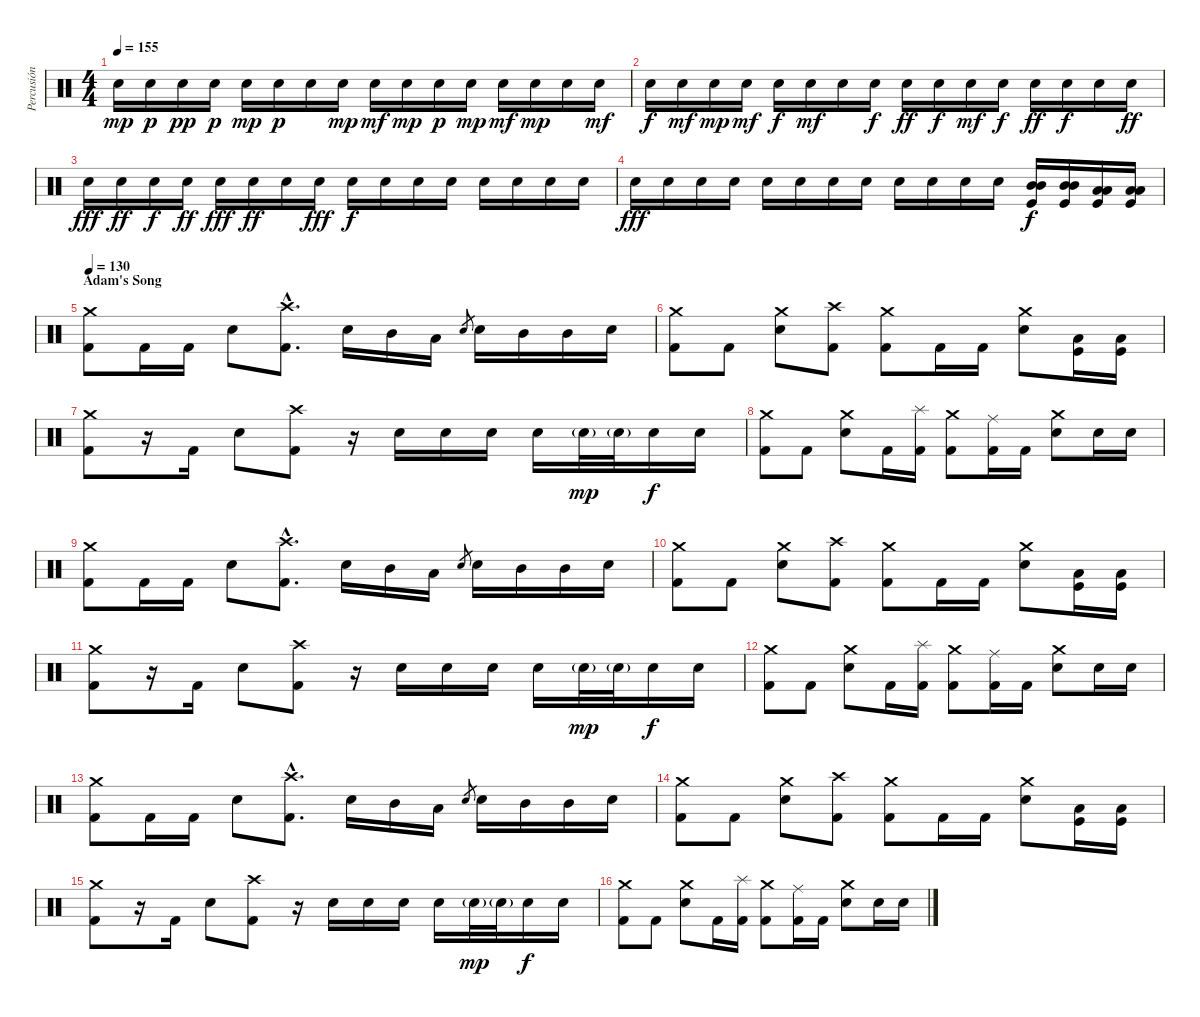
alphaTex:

\track ("Percusión" "Percusión") {instrument percussion}
\staff {score}
\articulation defaults
\ts (4 4)
\tempo 155
\clef neutral
\ks c "Electric Snare (hit)".16{dy mp} "Electric Snare (hit)".16{dy p} "Electric Snare (hit)".16{dy pp} "Electric Snare (hit)".16{dy p} "Electric Snare (hit)".16{dy mp} "Electric Snare (hit)".16{dy p} "Electric Snare (hit)".16 "Electric Snare (hit)".16{dy mp} "Electric Snare (hit)".16{dy mf} "Electric Snare (hit)".16{dy mp} "Electric Snare (hit)".16{dy p} "Electric Snare (hit)".16{dy mp} "Electric Snare (hit)".16{dy mf} "Electric Snare (hit)".16{dy mp} "Electric Snare (hit)".16 "Electric Snare (hit)".16{dy mf}
|
"Electric Snare (hit)".16{dy f} "Electric Snare (hit)".16{dy mf} "Electric Snare (hit)".16{dy mp} "Electric Snare (hit)".16{dy mf} "Electric Snare (hit)".16{dy f} "Electric Snare (hit)".16{dy mf} "Electric Snare (hit)".16 "Electric Snare (hit)".16{dy f} "Electric Snare (hit)".16{dy ff} "Electric Snare (hit)".16{dy f} "Electric Snare (hit)".16{dy mf} "Electric Snare (hit)".16{dy f} "Electric Snare (hit)".16{dy ff} "Electric Snare (hit)".16{dy f} "Electric Snare (hit)".16 "Electric Snare (hit)".16{dy ff} |
"Electric Snare (hit)".16{dy fff} "Electric Snare (hit)".16{dy ff} "Electric Snare (hit)".16{dy f} "Electric Snare (hit)".16{dy ff} "Electric Snare (hit)".16{dy fff} "Electric Snare (hit)".16{dy ff} "Electric Snare (hit)".16 "Electric Snare (hit)".16{dy fff} "Electric Snare (hit)".16{dy f} "Electric Snare (hit)".16 "Electric Snare (hit)".16 "Electric Snare (hit)".16 "Electric Snare (hit)".16 "Electric Snare (hit)".16 "Electric Snare (hit)".16 "Electric Snare (hit)".16 |
"Electric Snare (hit)".16{dy fff} "Electric Snare (hit)".16 "Electric Snare (hit)".16 "Electric Snare (hit)".16 "Electric Snare (hit)".16 "Electric Snare (hit)".16 "Electric Snare (hit)".16 "Electric Snare (hit)".16 "Electric Snare (hit)".16 "Electric Snare (hit)".16 "Electric Snare (hit)".16 "Electric Snare (hit)".16 ("Mid Tom (hit)" "Mid Tom (hit)" "Kick (hit)").16{dy f} ("Mid Tom (hit)" "Mid Tom (hit)" "Kick (hit)").16 ("Low Tom (hit)" "Low Tom (hit)" "Kick (hit)").16 ("Low Tom (hit)" "Low Tom (hit)" "Kick (hit)").16 |
\section ("" "Adam's Song")
\tempo 130
("Crash medium (hit)" "Kick (hit) 2").8 "Kick (hit) 2".16 "Kick (hit) 2".16 "Electric Snare (hit)".8 ("Crash high (hit)"{hac} "Kick (hit) 2"{hac}).8{d} "Electric Snare (hit)".16 "Mid Tom (hit)".16 "Low Tom (hit)".16 "Electric Snare (hit)".8{gr} "Electric Snare (hit)".16 "Mid Tom (hit)".16 "Mid Tom (hit)".16 "Electric Snare (hit)".16 |
("Crash medium (hit)" "Kick (hit) 2").8 "Kick (hit) 2".8 ("Crash medium (hit)" "Electric Snare (hit)").8 ("Crash high (hit)" "Kick (hit) 2").8 ("Crash medium (hit)" "Kick (hit) 2").8 "Kick (hit) 2".16 "Kick (hit) 2".16 ("Crash medium (hit)" "Electric Snare (hit)").8 ("Low Tom (hit)" "Kick (hit)").16 ("Low Tom (hit)" "Kick (hit)").16 |
("Crash medium (hit)" "Kick (hit) 2").8 r.16 "Kick (hit) 2".16 "Electric Snare (hit)".8 ("Crash high (hit)" "Kick (hit) 2").8 r.16 "Electric Snare (hit)".16 "Electric Snare (hit)".16 "Electric Snare (hit)".16 "Electric Snare (hit)".16 "Electric Snare (hit)"{g}.32{dy mp} "Electric Snare (hit)"{g}.32 "Electric Snare (hit)".16{dy f} "Electric Snare (hit)".16 |
("Crash medium (hit)" "Kick (hit) 2").8 "Kick (hit) 2".8 ("Crash medium (hit)" "Electric Snare (hit)").8 "Kick (hit) 2".16 ("Splash (hit)" "Kick (hit) 2").16 ("Crash medium (hit)" "Kick (hit) 2").8 ("Ride (middle)" "Kick (hit) 2").16 "Kick (hit) 2".16 ("Crash medium (hit)" "Electric Snare (hit)").8 "Electric Snare (hit)".16 "Electric Snare (hit)".16 |
("Crash medium (hit)" "Kick (hit) 2").8 "Kick (hit) 2".16 "Kick (hit) 2".16 "Electric Snare (hit)".8 ("Crash high (hit)"{hac} "Kick (hit) 2"{hac}).8{d} "Electric Snare (hit)".16 "Mid Tom (hit)".16 "Low Tom (hit)".16 "Electric Snare (hit)".8{gr} "Electric Snare (hit)".16 "Mid Tom (hit)".16 "Mid Tom (hit)".16 "Electric Snare (hit)".16 |
("Crash medium (hit)" "Kick (hit) 2").8 "Kick (hit) 2".8 ("Crash medium (hit)" "Electric Snare (hit)").8 ("Crash high (hit)" "Kick (hit) 2").8 ("Crash medium (hit)" "Kick (hit) 2").8 "Kick (hit) 2".16 "Kick (hit) 2".16 ("Crash medium (hit)" "Electric Snare (hit)").8 ("Low Tom (hit)" "Kick (hit)").16 ("Low Tom (hit)" "Kick (hit)").16 |
("Crash medium (hit)" "Kick (hit) 2").8 r.16 "Kick (hit) 2".16 "Electric Snare (hit)".8 ("Crash high (hit)" "Kick (hit) 2").8 r.16 "Electric Snare (hit)".16 "Electric Snare (hit)".16 "Electric Snare (hit)".16 "Electric Snare (hit)".16 "Electric Snare (hit)"{g}.32{dy mp} "Electric Snare (hit)"{g}.32 "Electric Snare (hit)".16{dy f} "Electric Snare (hit)".16 |
("Crash medium (hit)" "Kick (hit) 2").8 "Kick (hit) 2".8 ("Crash medium (hit)" "Electric Snare (hit)").8 "Kick (hit) 2".16 ("Splash (hit)" "Kick (hit) 2").16 ("Crash medium (hit)" "Kick (hit) 2").8 ("Ride (middle)" "Kick (hit) 2").16 "Kick (hit) 2".16 ("Crash medium (hit)" "Electric Snare (hit)").8 "Electric Snare (hit)".16 "Electric Snare (hit)".16 |
("Crash medium (hit)" "Kick (hit) 2").8 "Kick (hit) 2".16 "Kick (hit) 2".16 "Electric Snare (hit)".8 ("Crash high (hit)"{hac} "Kick (hit) 2"{hac}).8{d} "Electric Snare (hit)".16 "Mid Tom (hit)".16 "Low Tom (hit)".16 "Electric Snare (hit)".8{gr} "Electric Snare (hit)".16 "Mid Tom (hit)".16 "Mid Tom (hit)".16 "Electric Snare (hit)".16 |
("Crash medium (hit)" "Kick (hit) 2").8 "Kick (hit) 2".8 ("Crash medium (hit)" "Electric Snare (hit)").8 ("Crash high (hit)" "Kick (hit) 2").8 ("Crash medium (hit)" "Kick (hit) 2").8 "Kick (hit) 2".16 "Kick (hit) 2".16 ("Crash medium (hit)" "Electric Snare (hit)").8 ("Low Tom (hit)" "Kick (hit)").16 ("Low Tom (hit)" "Kick (hit)").16 |
("Crash medium (hit)" "Kick (hit) 2").8 r.16 "Kick (hit) 2".16 "Electric Snare (hit)".8 ("Crash high (hit)" "Kick (hit) 2").8 r.16 "Electric Snare (hit)".16 "Electric Snare (hit)".16 "Electric Snare (hit)".16 "Electric Snare (hit)".16 "Electric Snare (hit)"{g}.32{dy mp} "Electric Snare (hit)"{g}.32 "Electric Snare (hit)".16{dy f} "Electric Snare (hit)".16 |
("Crash medium (hit)" "Kick (hit) 2").8 "Kick (hit) 2".8 ("Crash medium (hit)" "Electric Snare (hit)").8 "Kick (hit) 2".16 ("Splash (hit)" "Kick (hit) 2").16 ("Crash medium (hit)" "Kick (hit) 2").8 ("Ride (middle)" "Kick (hit) 2").16 "Kick (hit) 2".16 ("Crash medium (hit)" "Electric Snare (hit)").8 "Electric Snare (hit)".16 "Electric Snare (hit)".16
